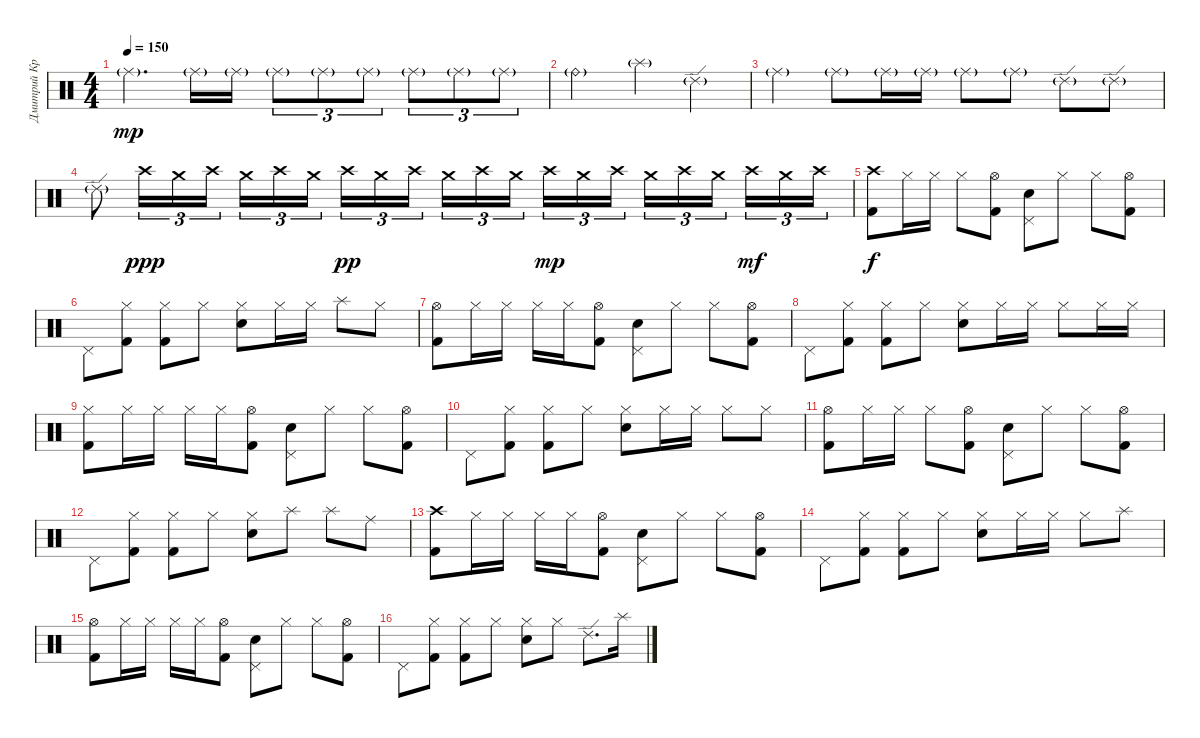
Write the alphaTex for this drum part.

\track ("Дмитрий Кривенков" "Дмитрий Кр") {instrument percussion}
\staff {score}
\articulation defaults
\ts (4 4)
\tempo 150
\clef neutral
\ks c "Ride (middle)"{g}.4{d dy mp} "Ride (middle)"{g}.16 "Ride (middle)"{g}.16 "Ride (middle)"{g}.8{tu (3 2)} "Ride (middle)"{g}.8{tu (3 2)} "Ride (middle)"{g}.8{tu (3 2)} "Ride (middle)"{g}.8{tu (3 2)} "Ride (middle)"{g}.8{tu (3 2)} "Ride (middle)"{g}.8{tu (3 2)}
|
"Ride (bell)"{g}.2 "Splash (hit)"{g}.4 "Ride (edge) 2"{g}.4 |
"Ride (middle)"{g}.4 "Ride (middle)"{g}.8 "Ride (middle)"{g}.16 "Ride (middle)"{g}.16 "Ride (middle)"{g}.8 "Ride (middle)"{g}.8 "Ride (edge) 2"{g}.8 "Ride (edge) 2"{g}.8 |
"Ride (edge) 2"{g}.8 "Crash high (hit)".16{tu (3 2) dy ppp} "Crash medium (hit)".16{tu (3 2)} "Crash high (hit)".16{tu (3 2)} "Crash medium (hit)".16{tu (3 2)} "Crash high (hit)".16{tu (3 2)} "Crash medium (hit)".16{tu (3 2) beam splitsecondary} "Crash high (hit)".16{tu (3 2) dy pp} "Crash medium (hit)".16{tu (3 2)} "Crash high (hit)".16{tu (3 2)} "Crash medium (hit)".16{tu (3 2)} "Crash high (hit)".16{tu (3 2)} "Crash medium (hit)".16{tu (3 2) beam splitsecondary} "Crash high (hit)".16{tu (3 2) dy mp} "Crash medium (hit)".16{tu (3 2)} "Crash high (hit)".16{tu (3 2)} "Crash medium (hit)".16{tu (3 2)} "Crash high (hit)".16{tu (3 2)} "Crash medium (hit)".16{tu (3 2) beam splitsecondary} "Crash high (hit)".16{tu (3 2) dy mf} "Crash medium (hit)".16{tu (3 2)} "Crash high (hit)".16{tu (3 2)} |
("Crash high (hit)" "Kick (hit) 2").8{dy f} "Hi-Hat (closed)".16 "Hi-Hat (closed)".16 "Hi-Hat (closed)".8 ("Hi-Hat (open)" "Kick (hit) 2").8 ("Pedal Hi-Hat (hit)" "Electric Snare (hit)").8 "Hi-Hat (closed)".8 "Hi-Hat (closed)".8 ("Hi-Hat (open)" "Kick (hit) 2").8 |
"Pedal Hi-Hat (hit)".8 ("Hi-Hat (closed)" "Kick (hit) 2").8 ("Hi-Hat (closed)" "Kick (hit) 2").8 "Hi-Hat (closed)".8 ("Hi-Hat (closed)" "Electric Snare (hit)").8 "Hi-Hat (closed)".16 "Hi-Hat (closed)".16 "Splash (hit)".8 "Hi-Hat (closed)".8 |
("Hi-Hat (open)" "Kick (hit) 2").8 "Hi-Hat (closed)".16 "Hi-Hat (closed)".16 "Hi-Hat (closed)".16 "Hi-Hat (closed)".16 ("Hi-Hat (open)" "Kick (hit) 2").8 ("Pedal Hi-Hat (hit)" "Electric Snare (hit)").8 "Hi-Hat (closed)".8 "Hi-Hat (closed)".8 ("Hi-Hat (open)" "Kick (hit) 2").8 |
"Pedal Hi-Hat (hit)".8 ("Hi-Hat (closed)" "Kick (hit) 2").8 ("Hi-Hat (closed)" "Kick (hit) 2").8 "Hi-Hat (closed)".8 ("Hi-Hat (closed)" "Electric Snare (hit)").8 "Hi-Hat (closed)".16 "Hi-Hat (closed)".16 "Hi-Hat (closed)".8 "Hi-Hat (closed)".16 "Hi-Hat (closed)".16 |
("Hi-Hat (closed)" "Kick (hit) 2").8 "Hi-Hat (closed)".16 "Hi-Hat (closed)".16 "Hi-Hat (closed)".16 "Hi-Hat (closed)".16 ("Hi-Hat (open)" "Kick (hit) 2").8 ("Pedal Hi-Hat (hit)" "Electric Snare (hit)").8 "Hi-Hat (closed)".8 "Hi-Hat (closed)".8 ("Hi-Hat (open)" "Kick (hit) 2").8 |
"Pedal Hi-Hat (hit)".8 ("Hi-Hat (closed)" "Kick (hit) 2").8 ("Hi-Hat (closed)" "Kick (hit) 2").8 "Hi-Hat (closed)".8 ("Hi-Hat (closed)" "Electric Snare (hit)").8 "Hi-Hat (closed)".16 "Hi-Hat (closed)".16 "Hi-Hat (closed)".8 "Hi-Hat (closed)".8 |
("Hi-Hat (open)" "Kick (hit) 2").8 "Hi-Hat (closed)".16 "Hi-Hat (closed)".16 "Hi-Hat (closed)".8 ("Hi-Hat (open)" "Kick (hit) 2").8 ("Pedal Hi-Hat (hit)" "Electric Snare (hit)").8 "Hi-Hat (closed)".8 "Hi-Hat (closed)".8 ("Hi-Hat (open)" "Kick (hit) 2").8 |
"Pedal Hi-Hat (hit)".8 ("Hi-Hat (closed)" "Kick (hit) 2").8 ("Hi-Hat (closed)" "Kick (hit) 2").8 "Hi-Hat (closed)".8 ("Hi-Hat (closed)" "Electric Snare (hit)").8 "Splash (hit)".8 "Splash (hit)".8 "Ride (middle)".8 |
("Crash high (hit)" "Kick (hit) 2").8 "Hi-Hat (closed)".16 "Hi-Hat (closed)".16 "Hi-Hat (closed)".16 "Hi-Hat (closed)".16 ("Hi-Hat (open)" "Kick (hit) 2").8 ("Pedal Hi-Hat (hit)" "Electric Snare (hit)").8 "Hi-Hat (closed)".8 "Hi-Hat (closed)".8 ("Hi-Hat (open)" "Kick (hit) 2").8 |
"Pedal Hi-Hat (hit)".8 ("Hi-Hat (closed)" "Kick (hit) 2").8 ("Hi-Hat (closed)" "Kick (hit) 2").8 "Hi-Hat (closed)".8 ("Hi-Hat (closed)" "Electric Snare (hit)").8 "Hi-Hat (closed)".16 "Hi-Hat (closed)".16 "Hi-Hat (closed)".8 "Splash (hit)".8 |
("Hi-Hat (open)" "Kick (hit) 2").8 "Hi-Hat (closed)".16 "Hi-Hat (closed)".16 "Hi-Hat (closed)".16 "Hi-Hat (closed)".16 ("Hi-Hat (open)" "Kick (hit) 2").8 ("Pedal Hi-Hat (hit)" "Electric Snare (hit)").8 "Hi-Hat (closed)".8 "Hi-Hat (closed)".8 ("Hi-Hat (open)" "Kick (hit) 2").8 |
"Pedal Hi-Hat (hit)".8 ("Hi-Hat (closed)" "Kick (hit) 2").8 ("Hi-Hat (closed)" "Kick (hit) 2").8 "Hi-Hat (closed)".8 ("Hi-Hat (closed)" "Electric Snare (hit)").8 "Hi-Hat (closed)".8 "Ride (edge) 2".8{d} "Splash (hit)".16
